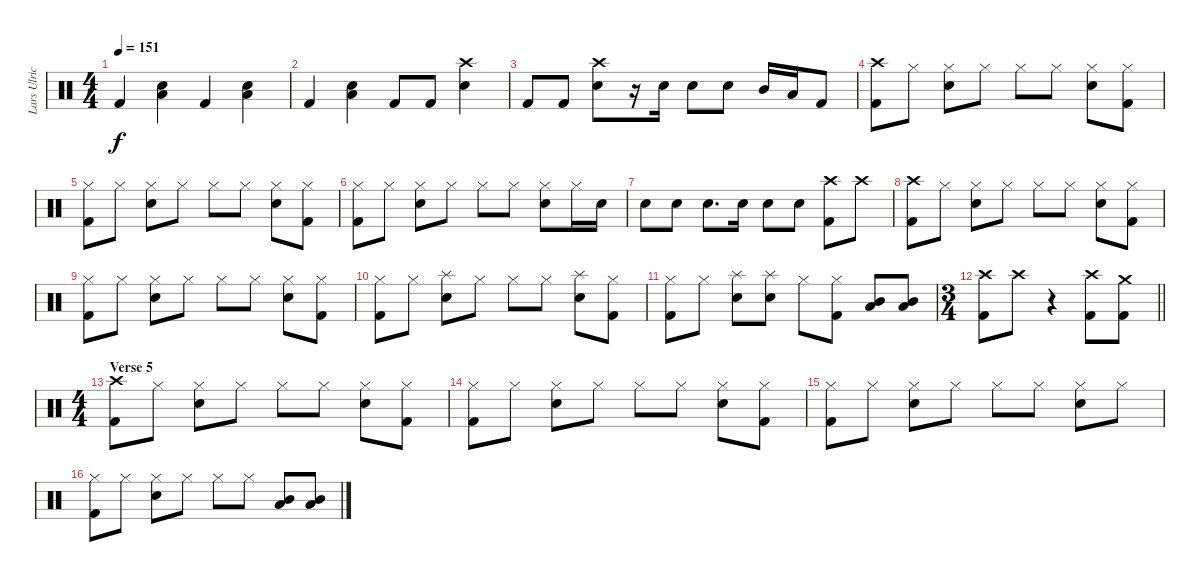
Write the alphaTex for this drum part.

\track ("Lars Ulrich" "Lars Ulric") {instrument percussion}
\staff {score}
\articulation defaults
\ts (4 4)
\tempo 151
\clef neutral
\ks c "Kick (hit) 2".4{dy f}
("Low Floor Tom (hit)" "Snare (hit) 2").4 "Kick (hit) 2".4 ("Low Floor Tom (hit)" "Snare (hit) 2").4 |
"Kick (hit) 2".4 ("Low Floor Tom (hit)" "Snare (hit) 2").4 "Kick (hit) 2".8 "Kick (hit) 2".8 ("Crash high (hit)" "Snare (hit) 2").4 |
"Kick (hit) 2".8 "Kick (hit) 2".8 ("Crash high (hit)" "Snare (hit) 2").8 r.16 "Snare (hit) 2".16 "Snare (hit) 2".8 "Snare (hit) 2".8 "Mid Tom (hit)".16 "Low Tom (hit)".16 "Kick (hit) 2".8 |
("Crash high (hit)" "Kick (hit) 2").8 "Hi-Hat (closed)".8 ("Hi-Hat (closed)" "Snare (hit) 2").8 "Hi-Hat (closed)".8 "Hi-Hat (closed)".8 "Hi-Hat (closed)".8 ("Hi-Hat (closed)" "Snare (hit) 2").8 ("Hi-Hat (closed)" "Kick (hit) 2").8 |
("Hi-Hat (closed)" "Kick (hit) 2").8 "Hi-Hat (closed)".8 ("Hi-Hat (closed)" "Snare (hit) 2").8 "Hi-Hat (closed)".8 "Hi-Hat (closed)".8 "Hi-Hat (closed)".8 ("Hi-Hat (closed)" "Snare (hit) 2").8 ("Hi-Hat (closed)" "Kick (hit) 2").8 |
("Hi-Hat (closed)" "Kick (hit) 2").8 "Hi-Hat (closed)".8 ("Hi-Hat (closed)" "Snare (hit) 2").8 "Hi-Hat (closed)".8 "Hi-Hat (closed)".8 "Hi-Hat (closed)".8 ("Hi-Hat (closed)" "Snare (hit) 2").8 "Hi-Hat (closed)".16 "Snare (hit) 2".16 |
"Snare (hit) 2".8 "Snare (hit) 2".8 "Snare (hit) 2".8{d} "Snare (hit) 2".16 "Snare (hit) 2".8 "Snare (hit) 2".8 ("Crash high (hit)" "Kick (hit) 2").8 "Crash high (hit)".8{volume 0} |
("Crash high (hit)" "Kick (hit) 2").8{volume 16} "Hi-Hat (closed)".8 ("Hi-Hat (closed)" "Snare (hit) 2").8 "Hi-Hat (closed)".8 "Hi-Hat (closed)".8 "Hi-Hat (closed)".8 ("Hi-Hat (closed)" "Snare (hit) 2").8 ("Hi-Hat (closed)" "Kick (hit) 2").8 |
("Hi-Hat (closed)" "Kick (hit) 2").8 "Hi-Hat (closed)".8 ("Hi-Hat (closed)" "Snare (hit) 2").8 "Hi-Hat (closed)".8 "Hi-Hat (closed)".8 "Hi-Hat (closed)".8 ("Hi-Hat (closed)" "Snare (hit) 2").8 ("Hi-Hat (closed)" "Kick (hit) 2").8 |
("Hi-Hat (closed)" "Kick (hit) 2").8 "Hi-Hat (closed)".8 ("Splash (hit)" "Snare (hit) 2").8 "Hi-Hat (closed)".8 "Hi-Hat (closed)".8 "Hi-Hat (closed)".8 ("Splash (hit)" "Snare (hit) 2").8 ("Hi-Hat (closed)" "Kick (hit) 2").8 |
("Hi-Hat (closed)" "Kick (hit) 2").8 "Hi-Hat (closed)".8 ("Splash (hit)" "Snare (hit) 2").8 ("Splash (hit)" "Snare (hit) 2").8 "Hi-Hat (closed)".8 ("Hi-Hat (closed)" "Kick (hit) 2").8 ("Mid Tom (hit)" "Low Tom (hit)").8 ("Mid Tom (hit)" "Low Tom (hit)").8 |
\ts (3 4)
\barLineRight lightlight
("Crash high (hit)" "Kick (hit) 2").8 "Crash high (hit)".8{volume 0} r.4 ("Crash high (hit)" "Kick (hit) 2").8{volume 16} ("Crash medium (hit)" "Kick (hit) 2").8 |
\ts (4 4)
\section ("" "Verse 5")
("Crash high (hit)" "Kick (hit) 2").8 "Hi-Hat (closed)".8 ("Hi-Hat (closed)" "Snare (hit) 2").8 "Hi-Hat (closed)".8 "Hi-Hat (closed)".8 "Hi-Hat (closed)".8 ("Hi-Hat (closed)" "Snare (hit) 2").8 ("Hi-Hat (closed)" "Kick (hit) 2").8 |
("Hi-Hat (closed)" "Kick (hit) 2").8 "Hi-Hat (closed)".8 ("Hi-Hat (closed)" "Snare (hit) 2").8 "Hi-Hat (closed)".8 "Hi-Hat (closed)".8 "Hi-Hat (closed)".8 ("Hi-Hat (closed)" "Snare (hit) 2").8 ("Hi-Hat (closed)" "Kick (hit) 2").8 |
("Hi-Hat (closed)" "Kick (hit) 2").8 "Hi-Hat (closed)".8 ("Hi-Hat (closed)" "Snare (hit) 2").8 "Hi-Hat (closed)".8 "Hi-Hat (closed)".8 "Hi-Hat (closed)".8 ("Hi-Hat (closed)" "Snare (hit) 2").8 "Hi-Hat (closed)".8 |
("Hi-Hat (closed)" "Kick (hit) 2").8 "Hi-Hat (closed)".8 ("Hi-Hat (closed)" "Snare (hit) 2").8 "Hi-Hat (closed)".8 "Hi-Hat (closed)".8 "Hi-Hat (closed)".8 ("Low Tom (hit)" "Mid Tom (hit)").8 ("Low Tom (hit)" "Mid Tom (hit)").8
